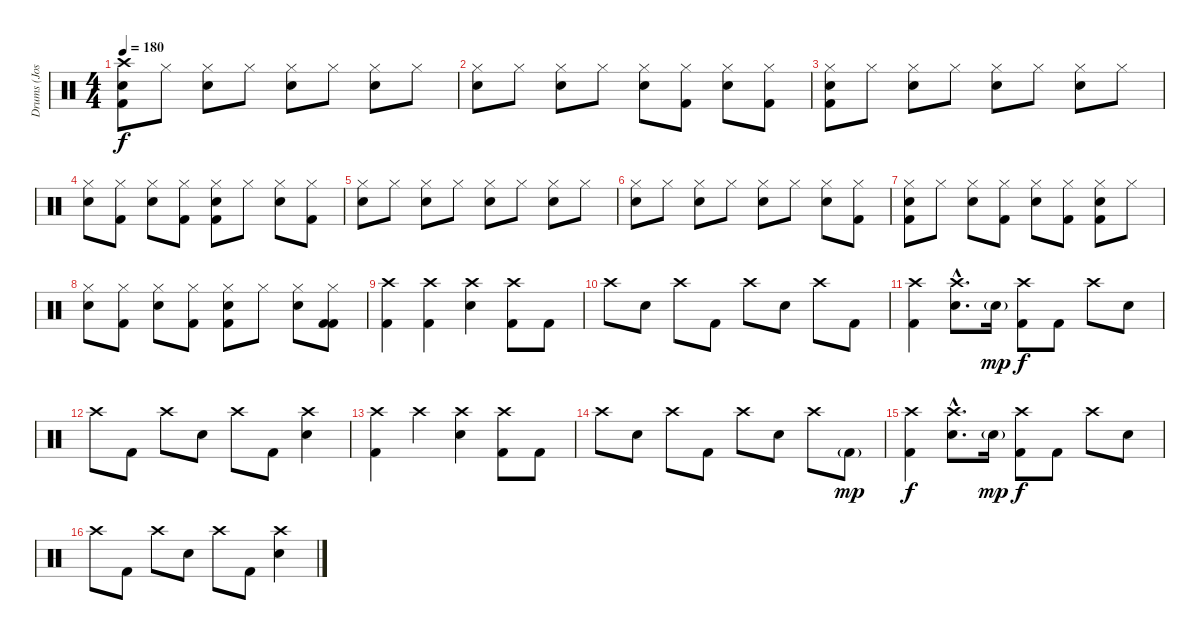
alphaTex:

\track ("Drums (Jose Pasilas II)" "Drums (Jos") {instrument percussion}
\staff {score}
\articulation defaults
\ts (4 4)
\tempo 180
\clef neutral
\ks c
("Snare (hit) 2" "Crash high (hit)" "Kick (hit) 2").8{dy f} "Hi-Hat (closed)".8 ("Hi-Hat (closed)" "Snare (hit) 2").8 "Hi-Hat (closed)".8 ("Hi-Hat (closed)" "Snare (hit) 2").8 "Hi-Hat (closed)".8 ("Hi-Hat (closed)" "Snare (hit) 2").8 "Hi-Hat (closed)".8 |
("Snare (hit) 2" "Hi-Hat (closed)").8 "Hi-Hat (closed)".8 ("Hi-Hat (closed)" "Snare (hit) 2").8 "Hi-Hat (closed)".8 ("Hi-Hat (closed)" "Snare (hit) 2").8 ("Hi-Hat (closed)" "Kick (hit) 2").8 ("Hi-Hat (closed)" "Snare (hit) 2").8 ("Hi-Hat (closed)" "Kick (hit) 2").8 |
("Kick (hit) 2" "Snare (hit) 2" "Hi-Hat (closed)").8 "Hi-Hat (closed)".8 ("Hi-Hat (closed)" "Snare (hit) 2").8 "Hi-Hat (closed)".8 ("Hi-Hat (closed)" "Snare (hit) 2").8 "Hi-Hat (closed)".8 ("Hi-Hat (closed)" "Snare (hit) 2").8 "Hi-Hat (closed)".8 |
("Snare (hit) 2" "Hi-Hat (closed)").8 ("Hi-Hat (closed)" "Kick (hit) 2").8 ("Hi-Hat (closed)" "Snare (hit) 2").8 ("Hi-Hat (closed)" "Kick (hit) 2").8 ("Hi-Hat (closed)" "Snare (hit) 2" "Kick (hit) 2").8 "Hi-Hat (closed)".8 ("Hi-Hat (closed)" "Snare (hit) 2").8 ("Hi-Hat (closed)" "Kick (hit) 2").8 |
("Snare (hit) 2" "Hi-Hat (closed)").8 "Hi-Hat (closed)".8 ("Hi-Hat (closed)" "Snare (hit) 2").8 "Hi-Hat (closed)".8 ("Hi-Hat (closed)" "Snare (hit) 2").8 "Hi-Hat (closed)".8 ("Hi-Hat (closed)" "Snare (hit) 2").8 "Hi-Hat (closed)".8 |
("Snare (hit) 2" "Hi-Hat (closed)").8 "Hi-Hat (closed)".8 ("Hi-Hat (closed)" "Snare (hit) 2").8 "Hi-Hat (closed)".8 ("Hi-Hat (closed)" "Snare (hit) 2").8 "Hi-Hat (closed)".8 ("Hi-Hat (closed)" "Snare (hit) 2").8 ("Hi-Hat (closed)" "Kick (hit) 2").8 |
("Kick (hit) 2" "Snare (hit) 2" "Hi-Hat (closed)").8 "Hi-Hat (closed)".8 ("Hi-Hat (closed)" "Snare (hit) 2").8 ("Hi-Hat (closed)" "Kick (hit) 2").8 ("Hi-Hat (closed)" "Snare (hit) 2").8 ("Hi-Hat (closed)" "Kick (hit) 2").8 ("Hi-Hat (closed)" "Snare (hit) 2" "Kick (hit) 2").8 "Hi-Hat (closed)".8 |
("Snare (hit) 2" "Hi-Hat (closed)").8 ("Hi-Hat (closed)" "Kick (hit) 2").8 ("Hi-Hat (closed)" "Snare (hit) 2").8 ("Hi-Hat (closed)" "Kick (hit) 2").8 ("Hi-Hat (closed)" "Snare (hit) 2" "Kick (hit) 2").8 "Hi-Hat (closed)".8 ("Hi-Hat (closed)" "Snare (hit) 2").8 ("Hi-Hat (closed)" "Kick (hit) 2" "Kick (hit) 2").8 |
("Kick (hit) 2" "Crash high (hit)").4 ("Kick (hit) 2" "Crash high (hit)").4 ("Snare (hit) 2" "Crash high (hit)").4 ("Kick (hit) 2" "Crash high (hit)").8 "Kick (hit) 2".8 |
"Crash high (hit)".8 "Snare (hit) 2".8 "Crash high (hit)".8 "Kick (hit) 2".8 "Crash high (hit)".8 "Snare (hit) 2".8 "Crash high (hit)".8 "Kick (hit) 2".8 |
("Kick (hit) 2" "Crash high (hit)").4 ("Crash high (hit)"{hac} "Snare (hit) 2"{hac}).8{d} "Snare (hit) 2"{g}.16{dy mp} ("Kick (hit) 2" "Crash high (hit)").8{dy f} "Kick (hit) 2".8 "Crash high (hit)".8 "Snare (hit) 2".8 |
"Crash high (hit)".8 "Kick (hit) 2".8 "Crash high (hit)".8 "Snare (hit) 2".8 "Crash high (hit)".8 "Kick (hit) 2".8 ("Snare (hit) 2" "Crash high (hit)").4 |
("Kick (hit) 2" "Crash high (hit)").4 "Crash high (hit)".4 ("Snare (hit) 2" "Crash high (hit)").4 ("Kick (hit) 2" "Crash high (hit)").8 "Kick (hit) 2".8 |
"Crash high (hit)".8 "Snare (hit) 2".8 "Crash high (hit)".8 "Kick (hit) 2".8 "Crash high (hit)".8 "Snare (hit) 2".8 "Crash high (hit)".8 "Kick (hit) 2"{g}.8{dy mp} |
("Kick (hit) 2" "Crash high (hit)").4{dy f} ("Snare (hit) 2"{hac} "Crash high (hit)"{hac}).8{d} "Snare (hit) 2"{g}.16{dy mp} ("Kick (hit) 2" "Crash high (hit)").8{dy f} "Kick (hit) 2".8 "Crash high (hit)".8 "Snare (hit) 2".8 |
"Crash high (hit)".8 "Kick (hit) 2".8 "Crash high (hit)".8 "Snare (hit) 2".8 "Crash high (hit)".8 "Kick (hit) 2".8 ("Crash high (hit)" "Snare (hit) 2").4
